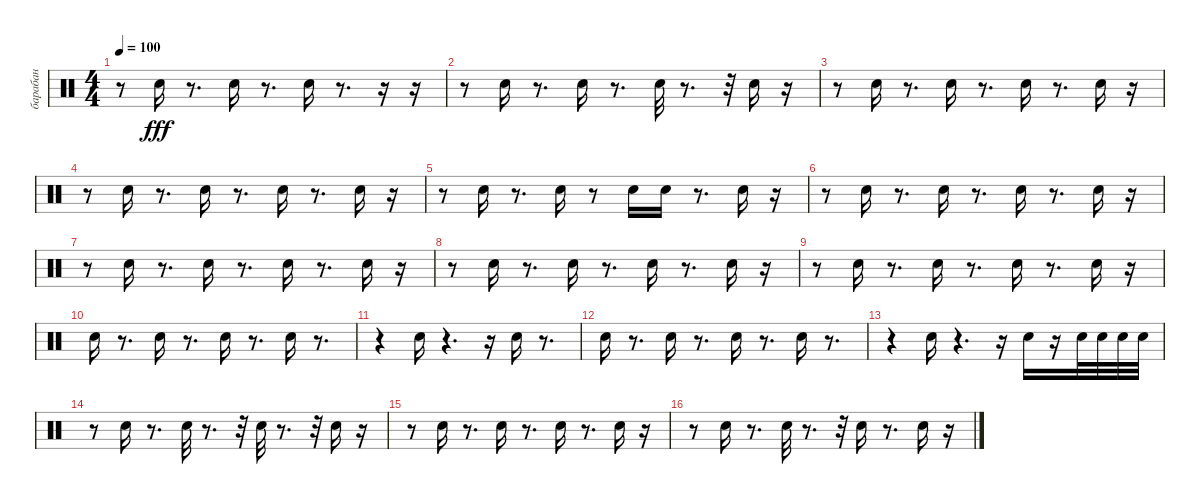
\track ("барабан" "барабан") {instrument percussion}
\staff {score}
\articulation defaults
\ts (4 4)
\tempo 100
\clef neutral
\ks c
r.8{dy fff} "Snare (hit) 2".16 r.8{d} "Snare (hit) 2".16 r.8{d} "Snare (hit) 2".16 r.8{d} r.16 r.16 |
r.8 "Snare (hit) 2".16 r.8{d} "Snare (hit) 2".16 r.8{d} "Snare (hit) 2".32 r.8{d} r.32 "Snare (hit) 2".16 r.16 |
r.8 "Snare (hit) 2".16 r.8{d} "Snare (hit) 2".16 r.8{d} "Snare (hit) 2".16 r.8{d} "Snare (hit) 2".16 r.16 |
r.8 "Snare (hit) 2".16 r.8{d} "Snare (hit) 2".16 r.8{d} "Snare (hit) 2".16 r.8{d} "Snare (hit) 2".16 r.16 |
r.8 "Snare (hit) 2".16 r.8{d} "Snare (hit) 2".16 r.8 "Snare (hit) 2".16 "Snare (hit) 2".16 r.8{d} "Snare (hit) 2".16 r.16 |
r.8 "Snare (hit) 2".16 r.8{d} "Snare (hit) 2".16 r.8{d} "Snare (hit) 2".16 r.8{d} "Snare (hit) 2".16 r.16 |
r.8 "Snare (hit) 2".16 r.8{d} "Snare (hit) 2".16 r.8{d} "Snare (hit) 2".16 r.8{d} "Snare (hit) 2".16 r.16 |
r.8 "Snare (hit) 2".16 r.8{d} "Snare (hit) 2".16 r.8{d} "Snare (hit) 2".16 r.8{d} "Snare (hit) 2".16 r.16 |
r.8 "Snare (hit) 2".16 r.8{d} "Snare (hit) 2".16 r.8{d} "Snare (hit) 2".16 r.8{d} "Snare (hit) 2".16 r.16 |
"Snare (hit) 2".16 r.8{d} "Snare (hit) 2".16 r.8{d} "Snare (hit) 2".16 r.8{d} "Snare (hit) 2".16 r.8{d} |
r.4 "Snare (hit) 2".16 r.4{d} r.16 "Snare (hit) 2".16 r.8{d} |
"Snare (hit) 2".16 r.8{d} "Snare (hit) 2".16 r.8{d} "Snare (hit) 2".16 r.8{d} "Snare (hit) 2".16 r.8{d} |
r.4 "Snare (hit) 2".16 r.4{d} r.16 "Snare (hit) 2".16 r.16 "Snare (hit) 2".32 "Snare (hit) 2".32 "Snare (hit) 2".32 "Snare (hit) 2".32 |
r.8 "Snare (hit) 2".16 r.8{d} "Snare (hit) 2".32 r.8{d} r.32 "Snare (hit) 2".32 r.8{d} r.32 "Snare (hit) 2".16 r.16 |
r.8 "Snare (hit) 2".16 r.8{d} "Snare (hit) 2".16 r.8{d} "Snare (hit) 2".16 r.8{d} "Snare (hit) 2".16 r.16 |
r.8 "Snare (hit) 2".16 r.8{d} "Snare (hit) 2".32 r.8{d} r.32 "Snare (hit) 2".16 r.8{d} "Snare (hit) 2".16 r.16
